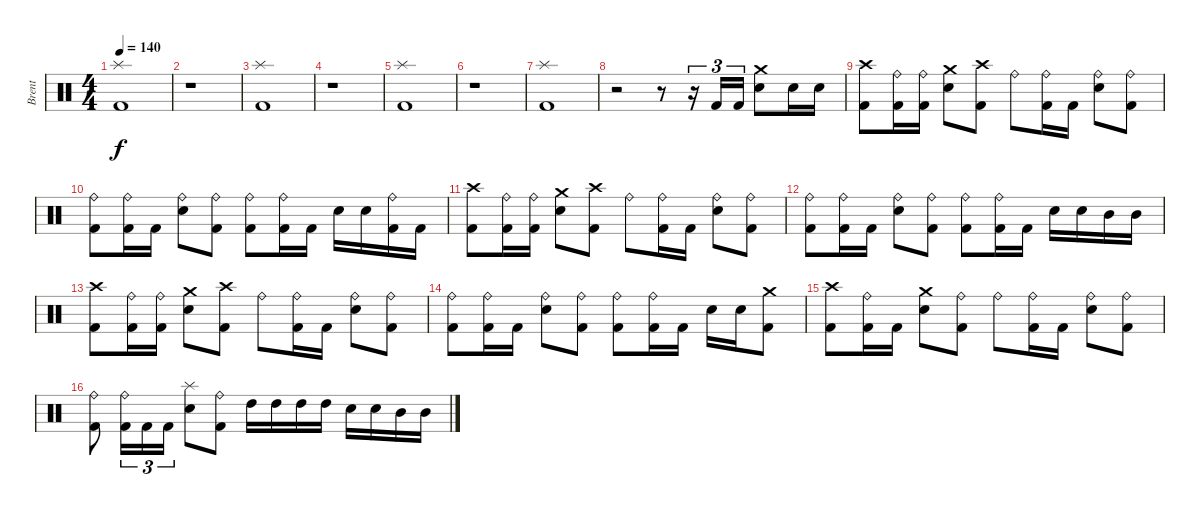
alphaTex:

\track ("Brent" "Brent") {instrument percussion}
\staff {score}
\articulation defaults
\ts (4 4)
\tempo 140
\clef neutral
\ks c
("Splash (hit)" "Kick (hit) 2").1{dy f} |
r.1 |
("Splash (hit)" "Kick (hit) 2").1 |
r.1 |
("Splash (hit)" "Kick (hit) 2").1 |
r.1 |
("Splash (hit)" "Kick (hit) 2").1 |
r.2 r.8 r.16{tu (3 2)} "Kick (hit) 2".16{tu (3 2)} "Kick (hit) 2".16{tu (3 2)} ("Crash medium (hit)" "Snare (hit) 2").8 "Snare (hit) 2".16 "Snare (hit) 2".16 |
("Crash high (hit)" "Kick (hit) 2").8 ("Ride (bell)" "Kick (hit) 2").16 ("Ride (bell)" "Kick (hit) 2").16 ("Crash medium (hit)" "Snare (hit) 2").8 ("Crash high (hit)" "Kick (hit) 2").8 "Ride (bell)".8 ("Ride (bell)" "Kick (hit) 2").16 "Kick (hit) 2".16 ("Ride (bell)" "Snare (hit) 2").8 ("Ride (bell)" "Kick (hit) 2").8 |
("Ride (bell)" "Kick (hit) 2").8 ("Ride (bell)" "Kick (hit) 2").16 "Kick (hit) 2".16 ("Ride (bell)" "Snare (hit) 2").8 ("Ride (bell)" "Kick (hit) 2").8 ("Ride (bell)" "Kick (hit) 2").8 ("Ride (bell)" "Kick (hit) 2").16 "Kick (hit) 2".16 "Snare (hit) 2".16 "Snare (hit) 2".16 ("Ride (bell)" "Kick (hit) 2").16 "Kick (hit) 2".16 |
("Crash high (hit)" "Kick (hit) 2").8 ("Ride (bell)" "Kick (hit) 2").16 ("Ride (bell)" "Kick (hit) 2").16 ("Crash medium (hit)" "Snare (hit) 2").8 ("Crash high (hit)" "Kick (hit) 2").8 "Ride (bell)".8 ("Ride (bell)" "Kick (hit) 2").16 "Kick (hit) 2".16 ("Ride (bell)" "Snare (hit) 2").8 ("Ride (bell)" "Kick (hit) 2").8 |
("Ride (bell)" "Kick (hit) 2").8 ("Ride (bell)" "Kick (hit) 2").16 "Kick (hit) 2".16 ("Ride (bell)" "Snare (hit) 2").8 ("Ride (bell)" "Kick (hit) 2").8 ("Ride (bell)" "Kick (hit) 2").8 ("Ride (bell)" "Kick (hit) 2").16 "Kick (hit) 2".16 "Snare (hit) 2".16 "Snare (hit) 2".16 "Mid Tom (hit)".16 "Mid Tom (hit)".16 |
("Crash high (hit)" "Kick (hit) 2").8 ("Ride (bell)" "Kick (hit) 2").16 ("Ride (bell)" "Kick (hit) 2").16 ("Crash medium (hit)" "Snare (hit) 2").8 ("Crash high (hit)" "Kick (hit) 2").8 "Ride (bell)".8 ("Ride (bell)" "Kick (hit) 2").16 "Kick (hit) 2".16 ("Ride (bell)" "Snare (hit) 2").8 ("Ride (bell)" "Kick (hit) 2").8 |
("Ride (bell)" "Kick (hit) 2").8 ("Ride (bell)" "Kick (hit) 2").16 "Kick (hit) 2".16 ("Ride (bell)" "Snare (hit) 2").8 ("Ride (bell)" "Kick (hit) 2").8 ("Ride (bell)" "Kick (hit) 2").8 ("Ride (bell)" "Kick (hit) 2").16 "Kick (hit) 2".16 "Snare (hit) 2".16 "Snare (hit) 2".16 ("Crash medium (hit)" "Kick (hit) 2").8 |
("Crash high (hit)" "Kick (hit) 2").8 ("Ride (bell)" "Kick (hit) 2").16 "Kick (hit) 2".16 ("Crash medium (hit)" "Snare (hit) 2").8 ("Ride (bell)" "Kick (hit) 2").8 "Ride (bell)".8 ("Ride (bell)" "Kick (hit) 2").16 "Kick (hit) 2".16 ("Ride (bell)" "Snare (hit) 2").8 ("Ride (bell)" "Kick (hit) 2").8 |
("Ride (bell)" "Kick (hit) 2").8 ("Ride (bell)" "Kick (hit) 2").16{tu (3 2)} "Kick (hit) 2".16{tu (3 2)} "Kick (hit) 2".16{tu (3 2)} ("Splash (hit)" "Snare (hit) 2").8 ("Ride (bell)" "Kick (hit) 2").8 "High Tom (hit)".16 "High Tom (hit)".16 "High Tom (hit)".16 "High Tom (hit)".16 "Snare (hit) 2".16 "Snare (hit) 2".16 "Mid Tom (hit)".16 "Mid Tom (hit)".16
